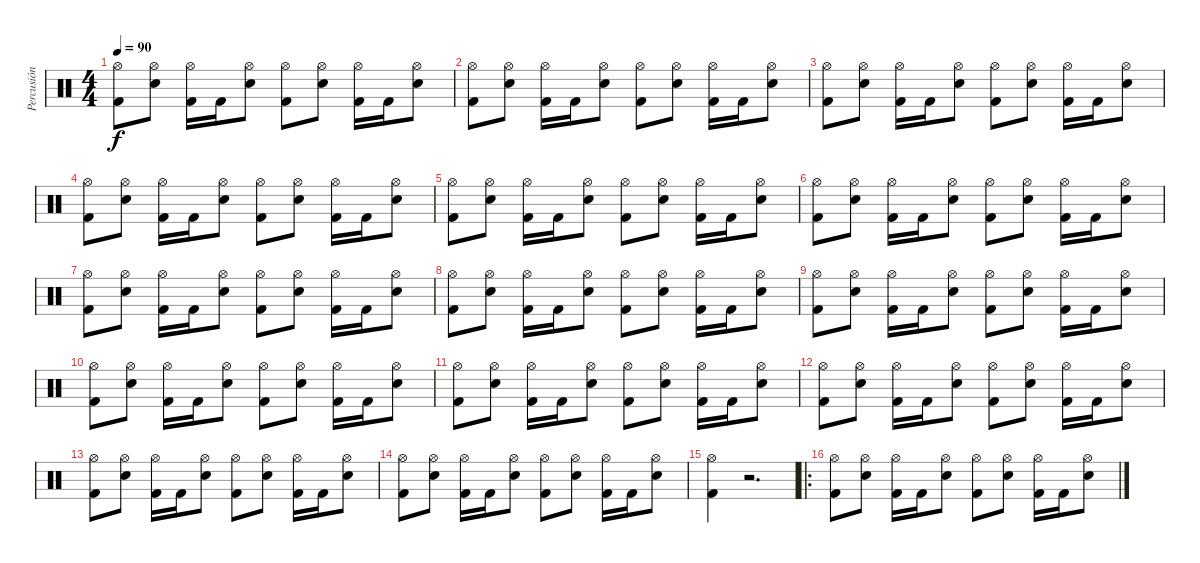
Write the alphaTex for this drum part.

\track ("Percusión" "Percusión") {instrument percussion}
\staff {score}
\articulation defaults
\ts (4 4)
\tempo 90
\clef neutral
\ks c
("Hi-Hat (open)" "Kick (hit) 2").8{dy f} ("Hi-Hat (open)" "Snare (hit) 2").8 ("Hi-Hat (open)" "Kick (hit) 2").16 "Kick (hit) 2".16 ("Hi-Hat (open)" "Snare (hit) 2").8 ("Hi-Hat (open)" "Kick (hit) 2").8 ("Hi-Hat (open)" "Snare (hit) 2").8 ("Hi-Hat (open)" "Kick (hit) 2").16 "Kick (hit) 2".16 ("Hi-Hat (open)" "Snare (hit) 2").8 |
("Hi-Hat (open)" "Kick (hit) 2").8 ("Hi-Hat (open)" "Snare (hit) 2").8 ("Hi-Hat (open)" "Kick (hit) 2").16 "Kick (hit) 2".16 ("Hi-Hat (open)" "Snare (hit) 2").8 ("Hi-Hat (open)" "Kick (hit) 2").8 ("Hi-Hat (open)" "Snare (hit) 2").8 ("Hi-Hat (open)" "Kick (hit) 2").16 "Kick (hit) 2".16 ("Hi-Hat (open)" "Snare (hit) 2").8 |
("Hi-Hat (open)" "Kick (hit) 2").8 ("Hi-Hat (open)" "Snare (hit) 2").8 ("Hi-Hat (open)" "Kick (hit) 2").16 "Kick (hit) 2".16 ("Hi-Hat (open)" "Snare (hit) 2").8 ("Hi-Hat (open)" "Kick (hit) 2").8 ("Hi-Hat (open)" "Snare (hit) 2").8 ("Hi-Hat (open)" "Kick (hit) 2").16 "Kick (hit) 2".16 ("Hi-Hat (open)" "Snare (hit) 2").8 |
("Hi-Hat (open)" "Kick (hit) 2").8 ("Hi-Hat (open)" "Snare (hit) 2").8 ("Hi-Hat (open)" "Kick (hit) 2").16 "Kick (hit) 2".16 ("Hi-Hat (open)" "Snare (hit) 2").8 ("Hi-Hat (open)" "Kick (hit) 2").8 ("Hi-Hat (open)" "Snare (hit) 2").8 ("Hi-Hat (open)" "Kick (hit) 2").16 "Kick (hit) 2".16 ("Hi-Hat (open)" "Snare (hit) 2").8 |
("Hi-Hat (open)" "Kick (hit) 2").8 ("Hi-Hat (open)" "Snare (hit) 2").8 ("Hi-Hat (open)" "Kick (hit) 2").16 "Kick (hit) 2".16 ("Hi-Hat (open)" "Snare (hit) 2").8 ("Hi-Hat (open)" "Kick (hit) 2").8 ("Hi-Hat (open)" "Snare (hit) 2").8 ("Hi-Hat (open)" "Kick (hit) 2").16 "Kick (hit) 2".16 ("Hi-Hat (open)" "Snare (hit) 2").8 |
("Hi-Hat (open)" "Kick (hit) 2").8 ("Hi-Hat (open)" "Snare (hit) 2").8 ("Hi-Hat (open)" "Kick (hit) 2").16 "Kick (hit) 2".16 ("Hi-Hat (open)" "Snare (hit) 2").8 ("Hi-Hat (open)" "Kick (hit) 2").8 ("Hi-Hat (open)" "Snare (hit) 2").8 ("Hi-Hat (open)" "Kick (hit) 2").16 "Kick (hit) 2".16 ("Hi-Hat (open)" "Snare (hit) 2").8 |
("Hi-Hat (open)" "Kick (hit) 2").8 ("Hi-Hat (open)" "Snare (hit) 2").8 ("Hi-Hat (open)" "Kick (hit) 2").16 "Kick (hit) 2".16 ("Hi-Hat (open)" "Snare (hit) 2").8 ("Hi-Hat (open)" "Kick (hit) 2").8 ("Hi-Hat (open)" "Snare (hit) 2").8 ("Hi-Hat (open)" "Kick (hit) 2").16 "Kick (hit) 2".16 ("Hi-Hat (open)" "Snare (hit) 2").8 |
("Hi-Hat (open)" "Kick (hit) 2").8 ("Hi-Hat (open)" "Snare (hit) 2").8 ("Hi-Hat (open)" "Kick (hit) 2").16 "Kick (hit) 2".16 ("Hi-Hat (open)" "Snare (hit) 2").8 ("Hi-Hat (open)" "Kick (hit) 2").8 ("Hi-Hat (open)" "Snare (hit) 2").8 ("Hi-Hat (open)" "Kick (hit) 2").16 "Kick (hit) 2".16 ("Hi-Hat (open)" "Snare (hit) 2").8 |
("Hi-Hat (open)" "Kick (hit) 2").8 ("Hi-Hat (open)" "Snare (hit) 2").8 ("Hi-Hat (open)" "Kick (hit) 2").16 "Kick (hit) 2".16 ("Hi-Hat (open)" "Snare (hit) 2").8 ("Hi-Hat (open)" "Kick (hit) 2").8 ("Hi-Hat (open)" "Snare (hit) 2").8 ("Hi-Hat (open)" "Kick (hit) 2").16 "Kick (hit) 2".16 ("Hi-Hat (open)" "Snare (hit) 2").8 |
("Hi-Hat (open)" "Kick (hit) 2").8 ("Hi-Hat (open)" "Snare (hit) 2").8 ("Hi-Hat (open)" "Kick (hit) 2").16 "Kick (hit) 2".16 ("Hi-Hat (open)" "Snare (hit) 2").8 ("Hi-Hat (open)" "Kick (hit) 2").8 ("Hi-Hat (open)" "Snare (hit) 2").8 ("Hi-Hat (open)" "Kick (hit) 2").16 "Kick (hit) 2".16 ("Hi-Hat (open)" "Snare (hit) 2").8 |
("Hi-Hat (open)" "Kick (hit) 2").8 ("Hi-Hat (open)" "Snare (hit) 2").8 ("Hi-Hat (open)" "Kick (hit) 2").16 "Kick (hit) 2".16 ("Hi-Hat (open)" "Snare (hit) 2").8 ("Hi-Hat (open)" "Kick (hit) 2").8 ("Hi-Hat (open)" "Snare (hit) 2").8 ("Hi-Hat (open)" "Kick (hit) 2").16 "Kick (hit) 2".16 ("Hi-Hat (open)" "Snare (hit) 2").8 |
("Hi-Hat (open)" "Kick (hit) 2").8 ("Hi-Hat (open)" "Snare (hit) 2").8 ("Hi-Hat (open)" "Kick (hit) 2").16 "Kick (hit) 2".16 ("Hi-Hat (open)" "Snare (hit) 2").8 ("Hi-Hat (open)" "Kick (hit) 2").8 ("Hi-Hat (open)" "Snare (hit) 2").8 ("Hi-Hat (open)" "Kick (hit) 2").16 "Kick (hit) 2".16 ("Hi-Hat (open)" "Snare (hit) 2").8 |
("Hi-Hat (open)" "Kick (hit) 2").8 ("Hi-Hat (open)" "Snare (hit) 2").8 ("Hi-Hat (open)" "Kick (hit) 2").16 "Kick (hit) 2".16 ("Hi-Hat (open)" "Snare (hit) 2").8 ("Hi-Hat (open)" "Kick (hit) 2").8 ("Hi-Hat (open)" "Snare (hit) 2").8 ("Hi-Hat (open)" "Kick (hit) 2").16 "Kick (hit) 2".16 ("Hi-Hat (open)" "Snare (hit) 2").8 |
("Hi-Hat (open)" "Kick (hit) 2").8 ("Hi-Hat (open)" "Snare (hit) 2").8 ("Hi-Hat (open)" "Kick (hit) 2").16 "Kick (hit) 2".16 ("Hi-Hat (open)" "Snare (hit) 2").8 ("Hi-Hat (open)" "Kick (hit) 2").8 ("Hi-Hat (open)" "Snare (hit) 2").8 ("Hi-Hat (open)" "Kick (hit) 2").16 "Kick (hit) 2".16 ("Hi-Hat (open)" "Snare (hit) 2").8 |
("Hi-Hat (open)" "Kick (hit) 2").4 r.2{d} |
\ro
("Hi-Hat (open)" "Kick (hit) 2").8 ("Hi-Hat (open)" "Snare (hit) 2").8 ("Hi-Hat (open)" "Kick (hit) 2").16 "Kick (hit) 2".16 ("Hi-Hat (open)" "Snare (hit) 2").8 ("Hi-Hat (open)" "Kick (hit) 2").8 ("Hi-Hat (open)" "Snare (hit) 2").8 ("Hi-Hat (open)" "Kick (hit) 2").16 "Kick (hit) 2".16 ("Hi-Hat (open)" "Snare (hit) 2").8
